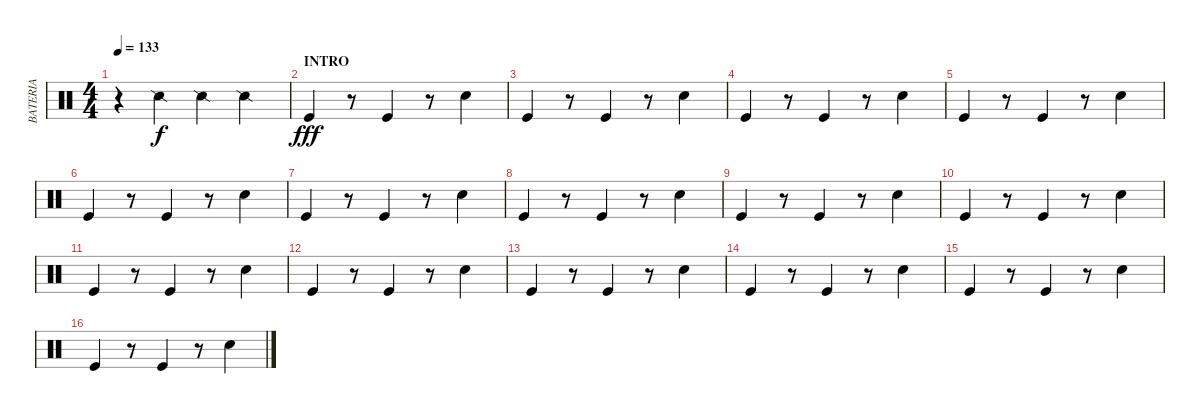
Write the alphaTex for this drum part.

\track ("BATERIA" "BATERIA") {instrument percussion}
\staff {score}
\articulation defaults
\ts (4 4)
\tempo 133
\clef neutral
\ks c
r.4{dy f} "Snare (side stick) 2".4 "Snare (side stick) 2".4 "Snare (side stick) 2".4 |
\section ("" "INTRO")
"Kick (hit)".4{dy fff} r.8 "Kick (hit)".4 r.8 "Electric Snare (hit)".4 |
"Kick (hit)".4 r.8 "Kick (hit)".4 r.8 "Electric Snare (hit)".4 |
"Kick (hit)".4 r.8 "Kick (hit)".4 r.8 "Electric Snare (hit)".4 |
"Kick (hit)".4 r.8 "Kick (hit)".4 r.8 "Electric Snare (hit)".4 |
"Kick (hit)".4 r.8 "Kick (hit)".4 r.8 "Electric Snare (hit)".4 |
"Kick (hit)".4 r.8 "Kick (hit)".4 r.8 "Electric Snare (hit)".4 |
"Kick (hit)".4 r.8 "Kick (hit)".4 r.8 "Electric Snare (hit)".4 |
"Kick (hit)".4 r.8 "Kick (hit)".4 r.8 "Electric Snare (hit)".4 |
"Kick (hit)".4 r.8 "Kick (hit)".4 r.8 "Electric Snare (hit)".4 |
"Kick (hit)".4 r.8 "Kick (hit)".4 r.8 "Electric Snare (hit)".4 |
"Kick (hit)".4 r.8 "Kick (hit)".4 r.8 "Electric Snare (hit)".4 |
"Kick (hit)".4 r.8 "Kick (hit)".4 r.8 "Electric Snare (hit)".4 |
"Kick (hit)".4 r.8 "Kick (hit)".4 r.8 "Electric Snare (hit)".4 |
"Kick (hit)".4 r.8 "Kick (hit)".4 r.8 "Electric Snare (hit)".4 |
"Kick (hit)".4 r.8 "Kick (hit)".4 r.8 "Electric Snare (hit)".4
